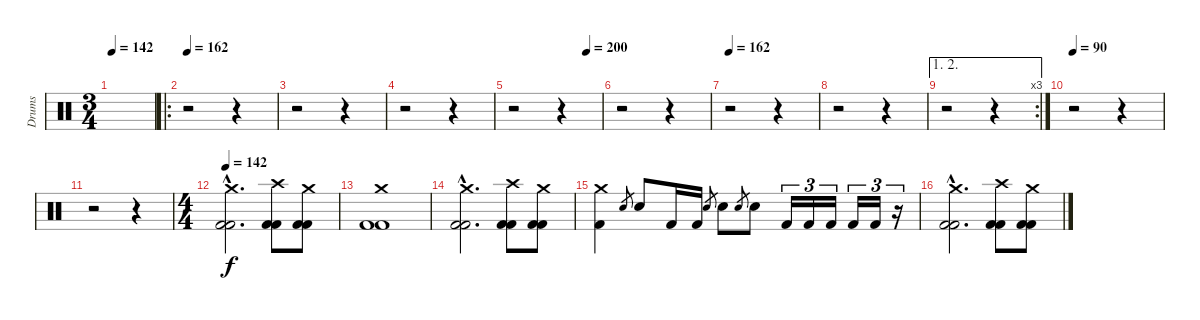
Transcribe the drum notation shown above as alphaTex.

\track ("Drums" "Drums") {instrument percussion}
\staff {score}
\articulation defaults
\ts (3 4)
\tempo 142
\clef neutral
\ks c
|
\ro
\tempo 162
r.2 r.4 |
r.2 r.4 |
r.2 r.4 |
\tempo (200 0.8333333333333334)
r.2 r.4 |
r.2 r.4 |
\tempo 162
r.2 r.4 |
r.2 r.4 |
\ae (1 2)
\rc 3
r.2 r.4 |
\tempo 90
r.2 r.4 |
r.2 r.4 |
\ts (4 4)
\tempo 142
("Kick (hit) 2"{hac} "Kick (hit) 2"{hac} "Crash medium (hit)"{hac}).2{d} ("Kick (hit) 2" "Kick (hit) 2" "Crash high (hit)").8 ("Kick (hit) 2" "Kick (hit) 2" "Crash medium (hit)").8 |
("Kick (hit) 2" "Kick (hit) 2" "Crash medium (hit)").1 |
("Kick (hit) 2"{hac} "Kick (hit) 2"{hac} "Crash medium (hit)"{hac}).2{d} ("Kick (hit) 2" "Kick (hit) 2" "Crash high (hit)").8 ("Kick (hit) 2" "Kick (hit) 2" "Crash medium (hit)").8 |
("Kick (hit) 2" "Crash medium (hit)").4 "Snare (hit) 2".8{gr} "Snare (hit) 2".8 "Kick (hit) 2".16 "Kick (hit) 2".16 "Snare (hit) 2".8{gr} "Snare (hit) 2".8 "Snare (hit) 2".8{gr} "Snare (hit) 2".8 "Kick (hit) 2".16{tu (3 2)} "Kick (hit) 2".16{tu (3 2)} "Kick (hit) 2".16{tu (3 2)} "Kick (hit) 2".16{tu (3 2)} "Kick (hit) 2".16{tu (3 2)} r.16{tu (3 2)} |
("Kick (hit) 2"{hac} "Kick (hit) 2"{hac} "Crash medium (hit)"{hac}).2{d} ("Kick (hit) 2" "Kick (hit) 2" "Crash high (hit)").8 ("Kick (hit) 2" "Kick (hit) 2" "Crash medium (hit)").8
